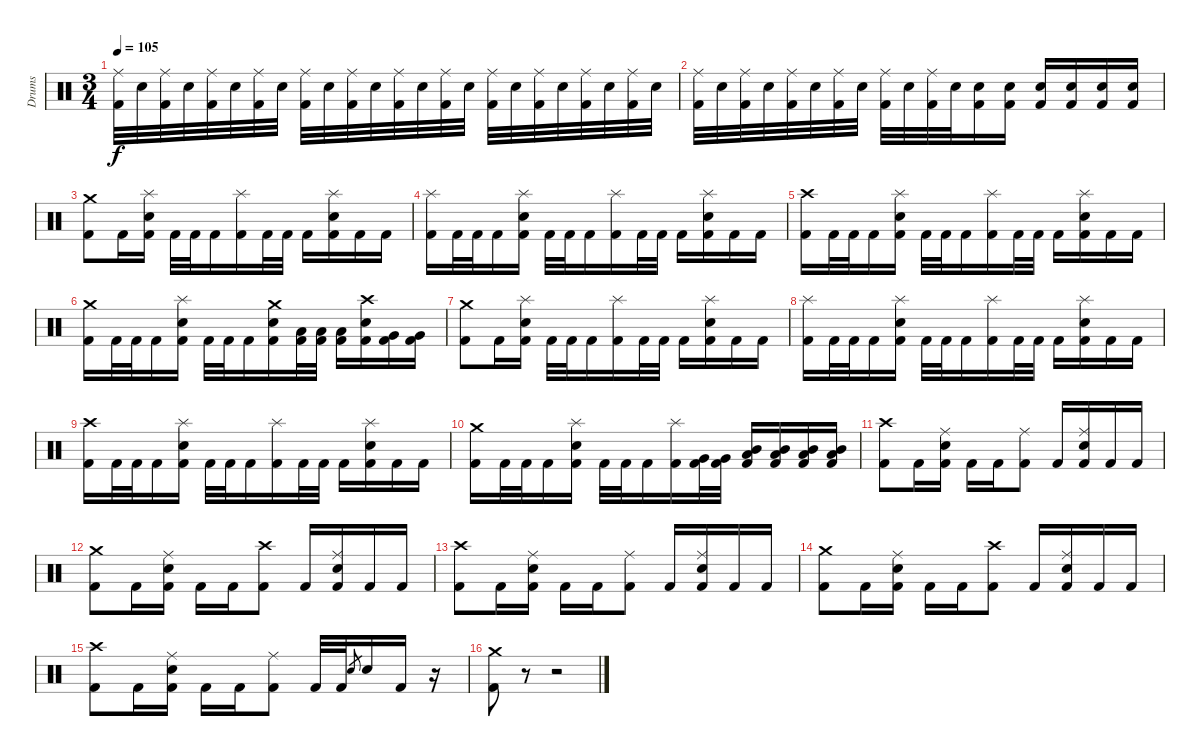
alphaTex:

\track ("Drums" "Drums") {instrument percussion}
\staff {score}
\articulation defaults
\ts (3 4)
\tempo 105
\clef neutral
\ks c
("Kick (hit) 2" "Ride (middle)").32{dy f} "Electric Snare (hit)".32 ("Kick (hit) 2" "Ride (middle)").32 "Electric Snare (hit)".32 ("Kick (hit) 2" "Ride (middle)").32 "Electric Snare (hit)".32 ("Kick (hit) 2" "Ride (middle)").32 "Electric Snare (hit)".32 ("Kick (hit) 2" "Ride (middle)").32 "Electric Snare (hit)".32 ("Kick (hit) 2" "Ride (middle)").32 "Electric Snare (hit)".32 ("Kick (hit) 2" "Ride (middle)").32 "Electric Snare (hit)".32 ("Kick (hit) 2" "Ride (middle)").32 "Electric Snare (hit)".32 ("Kick (hit) 2" "Ride (middle)").32 "Electric Snare (hit)".32 ("Kick (hit) 2" "Ride (middle)").32 "Electric Snare (hit)".32 ("Kick (hit) 2" "Ride (middle)").32 "Electric Snare (hit)".32 ("Kick (hit) 2" "Ride (middle)").32 "Electric Snare (hit)".32 |
("Kick (hit) 2" "Ride (middle)").32 "Electric Snare (hit)".32 ("Kick (hit) 2" "Ride (middle)").32 "Electric Snare (hit)".32 ("Kick (hit) 2" "Ride (middle)").32 "Electric Snare (hit)".32 ("Kick (hit) 2" "Ride (middle)").32 "Electric Snare (hit)".32 ("Kick (hit) 2" "Ride (middle)").32 "Electric Snare (hit)".32 ("Kick (hit) 2" "Ride (middle)").32 "Electric Snare (hit)".32 ("Kick (hit) 2" "Electric Snare (hit)").16 ("Kick (hit) 2" "Electric Snare (hit)").16 ("Kick (hit) 2" "Electric Snare (hit)").16 ("Kick (hit) 2" "Electric Snare (hit)").16 ("Kick (hit) 2" "Electric Snare (hit)").16 ("Kick (hit) 2" "Electric Snare (hit)").16 |
("Kick (hit) 2" "Crash medium (hit)").8 "Kick (hit) 2".16 ("Kick (hit) 2" "Electric Snare (hit)" "Splash (hit)").16 "Kick (hit) 2".32 "Kick (hit) 2".32 "Kick (hit) 2".16 ("Kick (hit) 2" "Splash (hit)").16 "Kick (hit) 2".32 "Kick (hit) 2".32 "Kick (hit) 2".16 ("Kick (hit) 2" "Electric Snare (hit)" "Splash (hit)").16 "Kick (hit) 2".16 "Kick (hit) 2".16 |
("Kick (hit) 2" "Splash (hit)").16 "Kick (hit) 2".32 "Kick (hit) 2".32 "Kick (hit) 2".16 ("Kick (hit) 2" "Electric Snare (hit)" "Splash (hit)").16 "Kick (hit) 2".32 "Kick (hit) 2".32 "Kick (hit) 2".16 ("Kick (hit) 2" "Splash (hit)").16 "Kick (hit) 2".32 "Kick (hit) 2".32 "Kick (hit) 2".16 ("Kick (hit) 2" "Electric Snare (hit)" "Splash (hit)").16 "Kick (hit) 2".16 "Kick (hit) 2".16 |
("Kick (hit) 2" "Crash high (hit)").16 "Kick (hit) 2".32 "Kick (hit) 2".32 "Kick (hit) 2".16 ("Kick (hit) 2" "Electric Snare (hit)" "Splash (hit)").16 "Kick (hit) 2".32 "Kick (hit) 2".32 "Kick (hit) 2".16 ("Kick (hit) 2" "Splash (hit)").16 "Kick (hit) 2".32 "Kick (hit) 2".32 "Kick (hit) 2".16 ("Kick (hit) 2" "Electric Snare (hit)" "Splash (hit)").16 "Kick (hit) 2".16 "Kick (hit) 2".16 |
("Kick (hit) 2" "Crash medium (hit)").16 "Kick (hit) 2".32 "Kick (hit) 2".32 "Kick (hit) 2".16 ("Kick (hit) 2" "Electric Snare (hit)" "Splash (hit)").16 "Kick (hit) 2".32 "Kick (hit) 2".32 "Kick (hit) 2".16 ("Kick (hit) 2" "Electric Snare (hit)" "Crash medium (hit)").16 ("Kick (hit) 2" "Low Tom (hit)").32 ("Kick (hit) 2" "Low Tom (hit)").32 ("Kick (hit) 2" "Low Tom (hit)").16 ("Kick (hit) 2" "Electric Snare (hit)" "Crash high (hit)").16 ("Kick (hit) 2" "Very Low Tom (hit)").16 ("Kick (hit) 2" "Very Low Tom (hit)").16 |
("Kick (hit) 2" "Crash medium (hit)").8 "Kick (hit) 2".16 ("Kick (hit) 2" "Electric Snare (hit)" "Splash (hit)").16 "Kick (hit) 2".32 "Kick (hit) 2".32 "Kick (hit) 2".16 ("Kick (hit) 2" "Splash (hit)").16 "Kick (hit) 2".32 "Kick (hit) 2".32 "Kick (hit) 2".16 ("Kick (hit) 2" "Electric Snare (hit)" "Splash (hit)").16 "Kick (hit) 2".16 "Kick (hit) 2".16 |
("Kick (hit) 2" "Splash (hit)").16 "Kick (hit) 2".32 "Kick (hit) 2".32 "Kick (hit) 2".16 ("Kick (hit) 2" "Electric Snare (hit)" "Splash (hit)").16 "Kick (hit) 2".32 "Kick (hit) 2".32 "Kick (hit) 2".16 ("Kick (hit) 2" "Splash (hit)").16 "Kick (hit) 2".32 "Kick (hit) 2".32 "Kick (hit) 2".16 ("Kick (hit) 2" "Electric Snare (hit)" "Splash (hit)").16 "Kick (hit) 2".16 "Kick (hit) 2".16 |
("Kick (hit) 2" "Crash high (hit)").16 "Kick (hit) 2".32 "Kick (hit) 2".32 "Kick (hit) 2".16 ("Kick (hit) 2" "Electric Snare (hit)" "Splash (hit)").16 "Kick (hit) 2".32 "Kick (hit) 2".32 "Kick (hit) 2".16 ("Kick (hit) 2" "Splash (hit)").16 "Kick (hit) 2".32 "Kick (hit) 2".32 "Kick (hit) 2".16 ("Kick (hit) 2" "Electric Snare (hit)" "Splash (hit)").16 "Kick (hit) 2".16 "Kick (hit) 2".16 |
("Kick (hit) 2" "Crash medium (hit)").16 "Kick (hit) 2".32 "Kick (hit) 2".32 "Kick (hit) 2".16 ("Kick (hit) 2" "Electric Snare (hit)" "Splash (hit)").16 "Kick (hit) 2".32 "Kick (hit) 2".32 "Kick (hit) 2".16 ("Kick (hit) 2" "Splash (hit)").16 ("Kick (hit) 2" "Very Low Tom (hit)").32 ("Kick (hit) 2" "Very Low Tom (hit)").32 ("Kick (hit) 2" "Low Tom (hit)" "Mid Tom (hit)").16 ("Kick (hit) 2" "Low Tom (hit)" "Mid Tom (hit)").16 ("Kick (hit) 2" "Low Tom (hit)" "Mid Tom (hit)").16 ("Kick (hit) 2" "Low Tom (hit)" "Mid Tom (hit)").16 |
("Kick (hit) 2" "Crash high (hit)").8 "Kick (hit) 2".16 ("Kick (hit) 2" "Electric Snare (hit)" "Ride (middle)").16 "Kick (hit) 2".16 "Kick (hit) 2".16 ("Kick (hit) 2" "Ride (middle)").8 "Kick (hit) 2".16 ("Kick (hit) 2" "Electric Snare (hit)" "Ride (middle)").16 "Kick (hit) 2".16 "Kick (hit) 2".16 |
("Kick (hit) 2" "Crash medium (hit)").8 "Kick (hit) 2".16 ("Kick (hit) 2" "Electric Snare (hit)" "Ride (middle)").16 "Kick (hit) 2".16 "Kick (hit) 2".16 ("Kick (hit) 2" "Crash high (hit)").8 "Kick (hit) 2".16 ("Kick (hit) 2" "Electric Snare (hit)" "Ride (middle)").16 "Kick (hit) 2".16 "Kick (hit) 2".16 |
("Kick (hit) 2" "Crash high (hit)").8 "Kick (hit) 2".16 ("Kick (hit) 2" "Electric Snare (hit)" "Ride (middle)").16 "Kick (hit) 2".16 "Kick (hit) 2".16 ("Kick (hit) 2" "Ride (middle)").8 "Kick (hit) 2".16 ("Kick (hit) 2" "Electric Snare (hit)" "Ride (middle)").16 "Kick (hit) 2".16 "Kick (hit) 2".16 |
("Kick (hit) 2" "Crash medium (hit)").8 "Kick (hit) 2".16 ("Kick (hit) 2" "Electric Snare (hit)" "Ride (middle)").16 "Kick (hit) 2".16 "Kick (hit) 2".16 ("Kick (hit) 2" "Crash high (hit)").8 "Kick (hit) 2".16 ("Kick (hit) 2" "Electric Snare (hit)" "Ride (middle)").16 "Kick (hit) 2".16 "Kick (hit) 2".16 |
("Kick (hit) 2" "Crash high (hit)").8 "Kick (hit) 2".16 ("Kick (hit) 2" "Electric Snare (hit)" "Ride (middle)").16 "Kick (hit) 2".16 "Kick (hit) 2".16 ("Kick (hit) 2" "Ride (middle)").8 "Kick (hit) 2".32 "Kick (hit) 2".32 "Electric Snare (hit)".8{gr} "Electric Snare (hit)".16 "Kick (hit) 2".16 r.16 |
("Kick (hit) 2" "Crash medium (hit)").8 r.8 r.2
